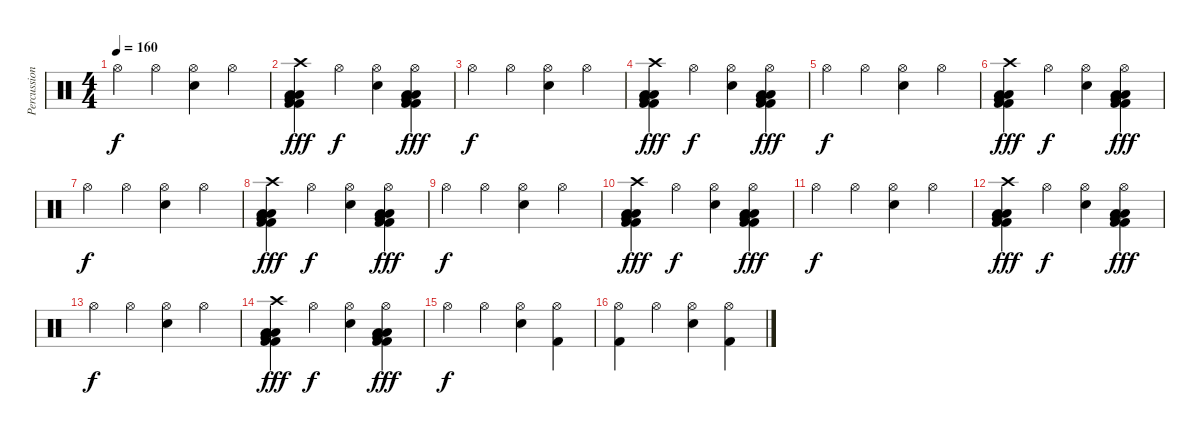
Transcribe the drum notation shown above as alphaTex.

\track ("Percussion" "Percussion") {instrument percussion}
\staff {score}
\articulation defaults
\ts (4 4)
\tempo 160
\clef neutral
\ks c "Hi-Hat (open)".4{dy f} "Hi-Hat (open)".4
("Hi-Hat (open)" "Snare (hit) 2").4 "Hi-Hat (open)".4 |
("Crash high (hit)" "Low Tom (hit)" "Very Low Tom (hit)" "Low Floor Tom (hit)" "Kick (hit) 2" "Kick (hit) 2").4{dy fff} "Hi-Hat (open)".4{dy f} ("Hi-Hat (open)" "Snare (hit) 2").4 ("Hi-Hat (open)" "Low Tom (hit)" "Very Low Tom (hit)" "Low Floor Tom (hit)" "Kick (hit) 2" "Kick (hit) 2").4{dy fff} |
"Hi-Hat (open)".4{dy f} "Hi-Hat (open)".4 ("Hi-Hat (open)" "Snare (hit) 2").4 "Hi-Hat (open)".4 |
("Crash high (hit)" "Low Tom (hit)" "Very Low Tom (hit)" "Low Floor Tom (hit)" "Kick (hit) 2" "Kick (hit) 2").4{dy fff} "Hi-Hat (open)".4{dy f} ("Hi-Hat (open)" "Snare (hit) 2").4 ("Hi-Hat (open)" "Low Tom (hit)" "Very Low Tom (hit)" "Low Floor Tom (hit)" "Kick (hit) 2" "Kick (hit) 2").4{dy fff} |
"Hi-Hat (open)".4{dy f} "Hi-Hat (open)".4 ("Hi-Hat (open)" "Snare (hit) 2").4 "Hi-Hat (open)".4 |
("Crash high (hit)" "Low Tom (hit)" "Very Low Tom (hit)" "Low Floor Tom (hit)" "Kick (hit) 2" "Kick (hit) 2").4{dy fff} "Hi-Hat (open)".4{dy f} ("Hi-Hat (open)" "Snare (hit) 2").4 ("Hi-Hat (open)" "Low Tom (hit)" "Very Low Tom (hit)" "Low Floor Tom (hit)" "Kick (hit) 2" "Kick (hit) 2").4{dy fff} |
"Hi-Hat (open)".4{dy f} "Hi-Hat (open)".4 ("Hi-Hat (open)" "Snare (hit) 2").4 "Hi-Hat (open)".4 |
("Crash high (hit)" "Low Tom (hit)" "Very Low Tom (hit)" "Low Floor Tom (hit)" "Kick (hit) 2" "Kick (hit) 2").4{dy fff} "Hi-Hat (open)".4{dy f} ("Hi-Hat (open)" "Snare (hit) 2").4 ("Hi-Hat (open)" "Low Tom (hit)" "Very Low Tom (hit)" "Low Floor Tom (hit)" "Kick (hit) 2" "Kick (hit) 2").4{dy fff} |
"Hi-Hat (open)".4{dy f} "Hi-Hat (open)".4 ("Hi-Hat (open)" "Snare (hit) 2").4 "Hi-Hat (open)".4 |
("Crash high (hit)" "Low Tom (hit)" "Very Low Tom (hit)" "Low Floor Tom (hit)" "Kick (hit) 2" "Kick (hit) 2").4{dy fff} "Hi-Hat (open)".4{dy f} ("Hi-Hat (open)" "Snare (hit) 2").4 ("Hi-Hat (open)" "Low Tom (hit)" "Very Low Tom (hit)" "Low Floor Tom (hit)" "Kick (hit) 2" "Kick (hit) 2").4{dy fff} |
"Hi-Hat (open)".4{dy f} "Hi-Hat (open)".4 ("Hi-Hat (open)" "Snare (hit) 2").4 "Hi-Hat (open)".4 |
("Crash high (hit)" "Low Tom (hit)" "Very Low Tom (hit)" "Low Floor Tom (hit)" "Kick (hit) 2" "Kick (hit) 2").4{dy fff} "Hi-Hat (open)".4{dy f} ("Hi-Hat (open)" "Snare (hit) 2").4 ("Hi-Hat (open)" "Low Tom (hit)" "Very Low Tom (hit)" "Low Floor Tom (hit)" "Kick (hit) 2" "Kick (hit) 2").4{dy fff} |
"Hi-Hat (open)".4{dy f} "Hi-Hat (open)".4 ("Hi-Hat (open)" "Snare (hit) 2").4 "Hi-Hat (open)".4 |
("Crash high (hit)" "Low Tom (hit)" "Very Low Tom (hit)" "Low Floor Tom (hit)" "Kick (hit) 2" "Kick (hit) 2").4{dy fff} "Hi-Hat (open)".4{dy f} ("Hi-Hat (open)" "Snare (hit) 2").4 ("Hi-Hat (open)" "Low Tom (hit)" "Very Low Tom (hit)" "Low Floor Tom (hit)" "Kick (hit) 2" "Kick (hit) 2").4{dy fff} |
"Hi-Hat (open)".4{dy f} "Hi-Hat (open)".4 ("Hi-Hat (open)" "Snare (hit) 2").4 ("Hi-Hat (open)" "Kick (hit) 2").4 |
("Hi-Hat (open)" "Kick (hit) 2").4 "Hi-Hat (open)".4 ("Hi-Hat (open)" "Snare (hit) 2").4 ("Hi-Hat (open)" "Kick (hit) 2").4
